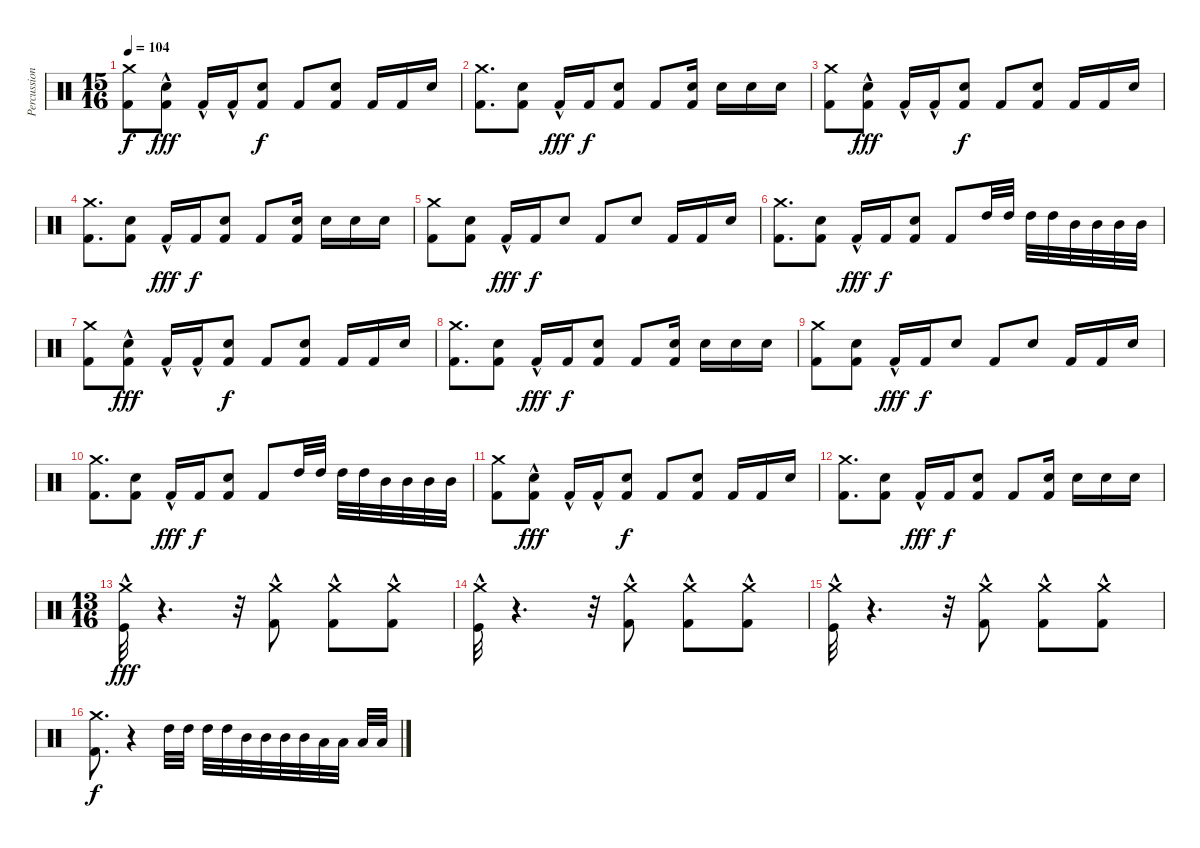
\track ("Percussion" "Percussion") {instrument percussion}
\staff {score}
\articulation defaults
\ts (15 16)
\tempo 104
\clef neutral
\ks c
("Crash medium (hit)" "Kick (hit) 2").8{dy f} ("Electric Snare (hit)" "Kick (hit) 2"{hac}).8{dy fff} "Kick (hit) 2"{hac}.16 "Kick (hit) 2"{hac}.16 ("Electric Snare (hit)" "Kick (hit) 2").8{dy f} "Kick (hit) 2".8 ("Electric Snare (hit)" "Kick (hit) 2").8 "Kick (hit) 2".16 "Kick (hit) 2".16 "Electric Snare (hit)".16 |
("Crash medium (hit)" "Kick (hit) 2").8{d} ("Electric Snare (hit)" "Kick (hit) 2").8 "Kick (hit) 2"{hac}.16{dy fff} "Kick (hit) 2".16{dy f} ("Electric Snare (hit)" "Kick (hit) 2").8 "Kick (hit) 2".8 ("Electric Snare (hit)" "Kick (hit) 2").16 "Electric Snare (hit)".16 "Electric Snare (hit)".16 "Electric Snare (hit)".16 |
("Crash medium (hit)" "Kick (hit) 2").8 ("Electric Snare (hit)" "Kick (hit) 2"{hac}).8{dy fff} "Kick (hit) 2"{hac}.16 "Kick (hit) 2"{hac}.16 ("Electric Snare (hit)" "Kick (hit) 2").8{dy f} "Kick (hit) 2".8 ("Electric Snare (hit)" "Kick (hit) 2").8 "Kick (hit) 2".16 "Kick (hit) 2".16 "Electric Snare (hit)".16 |
("Crash medium (hit)" "Kick (hit) 2").8{d} ("Electric Snare (hit)" "Kick (hit) 2").8 "Kick (hit) 2"{hac}.16{dy fff} "Kick (hit) 2".16{dy f} ("Electric Snare (hit)" "Kick (hit) 2").8 "Kick (hit) 2".8 ("Electric Snare (hit)" "Kick (hit) 2").16 "Electric Snare (hit)".16 "Electric Snare (hit)".16 "Electric Snare (hit)".16 |
("Crash medium (hit)" "Kick (hit) 2").8 ("Electric Snare (hit)" "Kick (hit) 2").8 "Kick (hit) 2"{hac}.16{dy fff} "Kick (hit) 2".16{dy f} "Electric Snare (hit)".8 "Kick (hit) 2".8 "Electric Snare (hit)".8 "Kick (hit) 2".16 "Kick (hit) 2".16 "Electric Snare (hit)".16 |
("Crash medium (hit)" "Kick (hit) 2").8{d} ("Electric Snare (hit)" "Kick (hit) 2").8 "Kick (hit) 2"{hac}.16{dy fff} "Kick (hit) 2".16{dy f} ("Electric Snare (hit)" "Kick (hit) 2").8 "Kick (hit) 2".8 "High Tom (hit)".32 "High Tom (hit)".32 "High Tom (hit)".32 "High Tom (hit)".32 "Mid Tom (hit)".32 "Mid Tom (hit)".32 "Mid Tom (hit)".32 "Mid Tom (hit)".32 |
("Crash medium (hit)" "Kick (hit) 2").8 ("Electric Snare (hit)" "Kick (hit) 2"{hac}).8{dy fff} "Kick (hit) 2"{hac}.16 "Kick (hit) 2"{hac}.16 ("Electric Snare (hit)" "Kick (hit) 2").8{dy f} "Kick (hit) 2".8 ("Electric Snare (hit)" "Kick (hit) 2").8 "Kick (hit) 2".16 "Kick (hit) 2".16 "Electric Snare (hit)".16 |
("Crash medium (hit)" "Kick (hit) 2").8{d} ("Electric Snare (hit)" "Kick (hit) 2").8 "Kick (hit) 2"{hac}.16{dy fff} "Kick (hit) 2".16{dy f} ("Electric Snare (hit)" "Kick (hit) 2").8 "Kick (hit) 2".8 ("Electric Snare (hit)" "Kick (hit) 2").16 "Electric Snare (hit)".16 "Electric Snare (hit)".16 "Electric Snare (hit)".16 |
("Crash medium (hit)" "Kick (hit) 2").8 ("Electric Snare (hit)" "Kick (hit) 2").8 "Kick (hit) 2"{hac}.16{dy fff} "Kick (hit) 2".16{dy f} "Electric Snare (hit)".8 "Kick (hit) 2".8 "Electric Snare (hit)".8 "Kick (hit) 2".16 "Kick (hit) 2".16 "Electric Snare (hit)".16 |
("Crash medium (hit)" "Kick (hit) 2").8{d} ("Electric Snare (hit)" "Kick (hit) 2").8 "Kick (hit) 2"{hac}.16{dy fff} "Kick (hit) 2".16{dy f} ("Electric Snare (hit)" "Kick (hit) 2").8 "Kick (hit) 2".8 "High Tom (hit)".32 "High Tom (hit)".32 "High Tom (hit)".32 "High Tom (hit)".32 "Mid Tom (hit)".32 "Mid Tom (hit)".32 "Mid Tom (hit)".32 "Mid Tom (hit)".32 |
("Crash medium (hit)" "Kick (hit) 2").8 ("Electric Snare (hit)" "Kick (hit) 2"{hac}).8{dy fff} "Kick (hit) 2"{hac}.16 "Kick (hit) 2"{hac}.16 ("Electric Snare (hit)" "Kick (hit) 2").8{dy f} "Kick (hit) 2".8 ("Electric Snare (hit)" "Kick (hit) 2").8 "Kick (hit) 2".16 "Kick (hit) 2".16 "Electric Snare (hit)".16 |
("Crash medium (hit)" "Kick (hit) 2").8{d} ("Electric Snare (hit)" "Kick (hit) 2").8 "Kick (hit) 2"{hac}.16{dy fff} "Kick (hit) 2".16{dy f} ("Electric Snare (hit)" "Kick (hit) 2").8 "Kick (hit) 2".8 ("Electric Snare (hit)" "Kick (hit) 2").16 "Electric Snare (hit)".16 "Electric Snare (hit)".16 "Electric Snare (hit)".16 |
\ts (13 16)
("Crash medium (hit)"{hac} "Kick (hit)"{hac}).32{dy fff} r.4{d} r.32 ("Crash medium (hit)"{hac} "Kick (hit) 2"{hac}).8 ("Crash medium (hit)"{hac} "Kick (hit) 2"{hac}).8 ("Crash medium (hit)"{hac} "Kick (hit) 2"{hac}).8 |
("Crash medium (hit)"{hac} "Kick (hit)"{hac}).32 r.4{d} r.32 ("Crash medium (hit)"{hac} "Kick (hit) 2"{hac}).8 ("Crash medium (hit)"{hac} "Kick (hit) 2"{hac}).8 ("Crash medium (hit)"{hac} "Kick (hit) 2"{hac}).8 |
("Crash medium (hit)"{hac} "Kick (hit)"{hac}).32 r.4{d} r.32 ("Crash medium (hit)"{hac} "Kick (hit) 2"{hac}).8 ("Crash medium (hit)"{hac} "Kick (hit) 2"{hac}).8 ("Crash medium (hit)"{hac} "Kick (hit) 2"{hac}).8 |
("Crash medium (hit)" "Kick (hit) 2").8{d dy f} r.4 "High Tom (hit)".32 "High Tom (hit)".32 "High Tom (hit)".32 "High Tom (hit)".32 "Mid Tom (hit)".32 "Mid Tom (hit)".32 "Mid Tom (hit)".32 "Mid Tom (hit)".32 "Low Tom (hit)".32 "Low Tom (hit)".32 "Low Tom (hit)".32 "Low Tom (hit)".32
